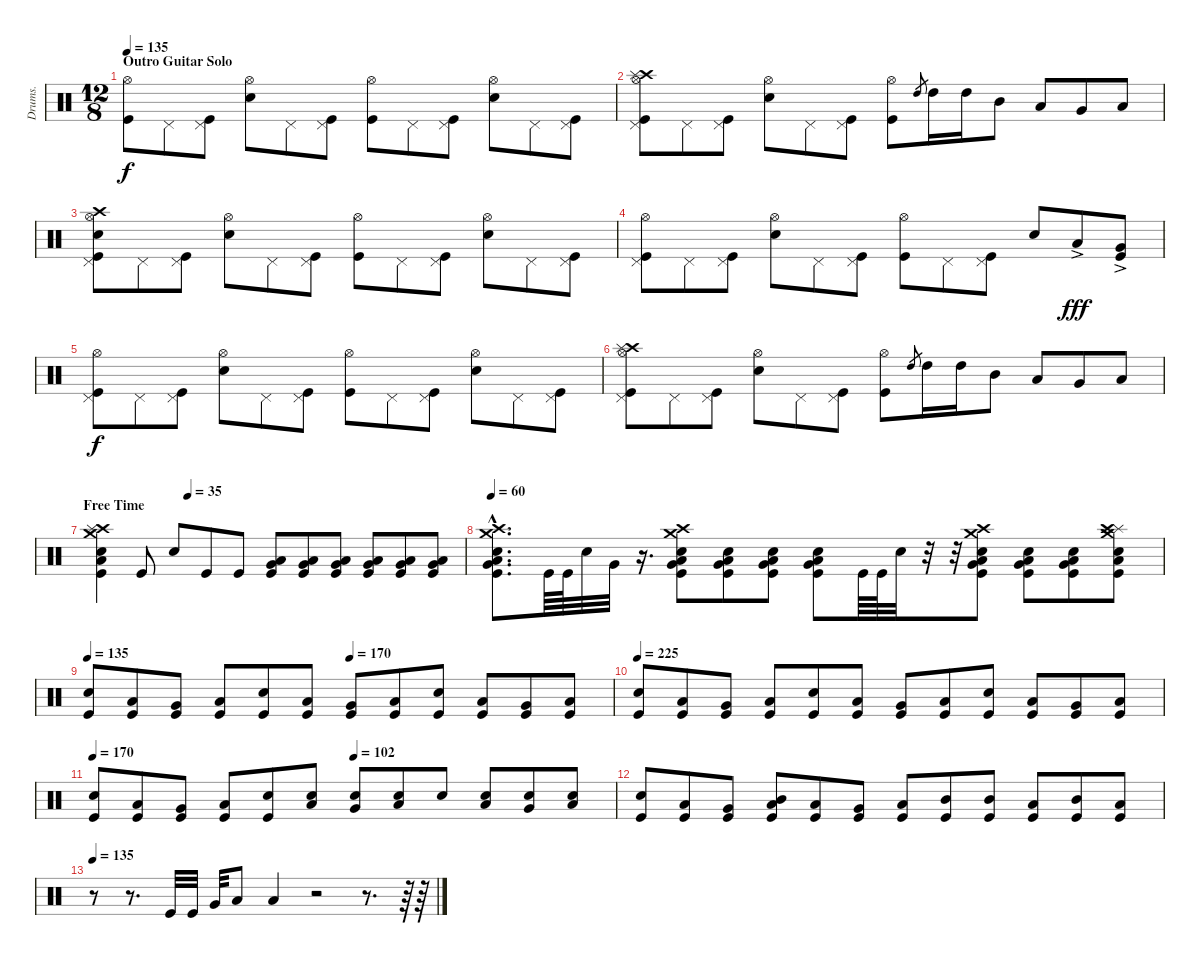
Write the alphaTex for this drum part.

\track ("Drums." "Drums.") {instrument percussion}
\staff {score}
\articulation defaults
\ts (12 8)
\section ("" "Outro Guitar Solo")
\tempo 135
\clef neutral
\ks c
("Hi-Hat (open)" "Kick (hit)").8{dy f} "Pedal Hi-Hat (hit)".8 ("Pedal Hi-Hat (hit)" "Kick (hit)").8 ("Hi-Hat (open)" "Snare (hit) 2").8 "Pedal Hi-Hat (hit)".8 ("Pedal Hi-Hat (hit)" "Kick (hit)").8 ("Hi-Hat (open)" "Kick (hit)").8 "Pedal Hi-Hat (hit)".8 ("Pedal Hi-Hat (hit)" "Kick (hit)").8 ("Hi-Hat (open)" "Snare (hit) 2").8 "Pedal Hi-Hat (hit)".8 ("Pedal Hi-Hat (hit)" "Kick (hit)").8 |
("Hi-Hat (open)" "Crash high (hit)" "Splash (hit)" "Pedal Hi-Hat (hit)" "Kick (hit)").8 "Pedal Hi-Hat (hit)".8 ("Pedal Hi-Hat (hit)" "Kick (hit)").8 ("Hi-Hat (open)" "Snare (hit) 2").8 "Pedal Hi-Hat (hit)".8 ("Pedal Hi-Hat (hit)" "Kick (hit)").8 ("Hi-Hat (open)" "Kick (hit)").8 "High Tom (hit)".8{gr} "High Tom (hit)".16 "High Tom (hit)".16 "Mid Tom (hit)".8 "Low Tom (hit)".8 "Very Low Tom (hit)".8 "Low Floor Tom (hit)".8 |
("Hi-Hat (open)" "Pedal Hi-Hat (hit)" "Crash high (hit)" "Snare (hit) 2" "Kick (hit)").8 "Pedal Hi-Hat (hit)".8 ("Pedal Hi-Hat (hit)" "Kick (hit)").8 ("Hi-Hat (open)" "Snare (hit) 2").8 "Pedal Hi-Hat (hit)".8 ("Pedal Hi-Hat (hit)" "Kick (hit)").8 ("Hi-Hat (open)" "Kick (hit)").8 "Pedal Hi-Hat (hit)".8 ("Pedal Hi-Hat (hit)" "Kick (hit)").8 ("Hi-Hat (open)" "Snare (hit) 2").8 "Pedal Hi-Hat (hit)".8 ("Pedal Hi-Hat (hit)" "Kick (hit)").8 |
("Hi-Hat (open)" "Pedal Hi-Hat (hit)" "Kick (hit)").8 "Pedal Hi-Hat (hit)".8 ("Pedal Hi-Hat (hit)" "Kick (hit)").8 ("Hi-Hat (open)" "Snare (hit) 2").8 "Pedal Hi-Hat (hit)".8 ("Pedal Hi-Hat (hit)" "Kick (hit)").8 ("Hi-Hat (open)" "Kick (hit)").8 "Pedal Hi-Hat (hit)".8 ("Pedal Hi-Hat (hit)" "Kick (hit)").8 "Snare (hit) 2".8 "Low Tom (hit)"{ac}.8{dy fff} ("Very Low Tom (hit)"{ac} "Kick (hit)").8 |
("Hi-Hat (open)" "Pedal Hi-Hat (hit)" "Kick (hit)").8{dy f} "Pedal Hi-Hat (hit)".8 ("Pedal Hi-Hat (hit)" "Kick (hit)").8 ("Hi-Hat (open)" "Snare (hit) 2").8 "Pedal Hi-Hat (hit)".8 ("Pedal Hi-Hat (hit)" "Kick (hit)").8 ("Hi-Hat (open)" "Kick (hit)").8 "Pedal Hi-Hat (hit)".8 ("Pedal Hi-Hat (hit)" "Kick (hit)").8 ("Hi-Hat (open)" "Snare (hit) 2").8 "Pedal Hi-Hat (hit)".8 ("Pedal Hi-Hat (hit)" "Kick (hit)").8 |
("Hi-Hat (open)" "Crash high (hit)" "Splash (hit)" "Pedal Hi-Hat (hit)" "Kick (hit)").8 "Pedal Hi-Hat (hit)".8 ("Pedal Hi-Hat (hit)" "Kick (hit)").8 ("Hi-Hat (open)" "Snare (hit) 2").8 "Pedal Hi-Hat (hit)".8 ("Pedal Hi-Hat (hit)" "Kick (hit)").8 ("Hi-Hat (open)" "Kick (hit)").8 "High Tom (hit)".8{gr} "High Tom (hit)".16 "High Tom (hit)".16 "Mid Tom (hit)".8 "Low Tom (hit)".8 "Very Low Tom (hit)".8 "Low Floor Tom (hit)".8 |
\section ("" "Free Time")
\tempo (35 0.25)
("Crash high (hit)" "Splash (hit)" "Low Tom (hit)" "Snare (hit) 2" "Crash medium (hit)" "Kick (hit)").4 "Kick (hit)".8 "Snare (hit) 2".8 "Kick (hit)".8 "Kick (hit)".8 ("Low Floor Tom (hit)" "Very Low Tom (hit)" "Kick (hit)").8 ("Low Floor Tom (hit)" "Very Low Tom (hit)" "Kick (hit)").8 ("Low Floor Tom (hit)" "Very Low Tom (hit)" "Kick (hit)").8 ("Low Floor Tom (hit)" "Very Low Tom (hit)" "Kick (hit)").8 ("Low Floor Tom (hit)" "Very Low Tom (hit)" "Kick (hit)").8 ("Low Floor Tom (hit)" "Very Low Tom (hit)" "Kick (hit)").8 |
\tempo 60
("Crash medium (hit)"{hac} "Crash high (hit)"{hac} "Snare (hit) 2"{hac} "Very Low Tom (hit)"{hac} "Low Floor Tom (hit)"{hac} "Kick (hit)"{hac}).8{d} "Kick (hit)".64 "Kick (hit)".64 "Snare (hit) 2".32 "Very Low Tom (hit)".32 r.16{d} ("Crash medium (hit)" "Crash high (hit)" "Snare (hit) 2" "Very Low Tom (hit)" "Low Floor Tom (hit)" "Kick (hit)").8 ("Very Low Tom (hit)" "Snare (hit) 2" "Low Floor Tom (hit)" "Kick (hit)").8 ("Very Low Tom (hit)" "Snare (hit) 2" "Low Floor Tom (hit)" "Kick (hit)").8 ("Very Low Tom (hit)" "Snare (hit) 2" "Low Floor Tom (hit)" "Kick (hit)").8 "Kick (hit)".64 "Kick (hit)".64 "Snare (hit) 2".32 r.32 r.32 ("Crash medium (hit)" "Crash high (hit)" "Snare (hit) 2" "Very Low Tom (hit)" "Low Floor Tom (hit)" "Kick (hit)").8 ("Very Low Tom (hit)" "Snare (hit) 2" "Low Floor Tom (hit)" "Kick (hit)").8 ("Very Low Tom (hit)" "Snare (hit) 2" "Low Floor Tom (hit)" "Kick (hit)").8 ("Splash (hit)" "Crash high (hit)" "Crash medium (hit)" "Snare (hit) 2" "Low Floor Tom (hit)" "Kick (hit)").8 |
\tempo 135
\tempo (170 0.5)
("Snare (hit) 2" "Kick (hit)").8 ("Low Tom (hit)" "Kick (hit)").8 ("Very Low Tom (hit)" "Kick (hit)").8 ("Low Floor Tom (hit)" "Kick (hit)").8 ("Snare (hit) 2" "Kick (hit)").8 ("Low Tom (hit)" "Kick (hit)").8 ("Very Low Tom (hit)" "Kick (hit)").8 ("Low Floor Tom (hit)" "Kick (hit)").8 ("Snare (hit) 2" "Kick (hit)").8 ("Low Tom (hit)" "Kick (hit)").8 ("Very Low Tom (hit)" "Kick (hit)").8 ("Low Floor Tom (hit)" "Kick (hit)").8 |
\tempo 225
("Snare (hit) 2" "Kick (hit)").8 ("Low Tom (hit)" "Kick (hit)").8 ("Very Low Tom (hit)" "Kick (hit)").8 ("Low Floor Tom (hit)" "Kick (hit)").8 ("Snare (hit) 2" "Kick (hit)").8 ("Low Tom (hit)" "Kick (hit)").8 ("Very Low Tom (hit)" "Kick (hit)").8 ("Low Floor Tom (hit)" "Kick (hit)").8 ("Snare (hit) 2" "Kick (hit)").8 ("Low Tom (hit)" "Kick (hit)").8 ("Very Low Tom (hit)" "Kick (hit)").8 ("Low Floor Tom (hit)" "Kick (hit)").8 |
\tempo 170
\tempo (102 0.5)
("Snare (hit) 2" "Kick (hit)").8 ("Low Tom (hit)" "Kick (hit)").8 ("Very Low Tom (hit)" "Kick (hit)").8 ("Low Floor Tom (hit)" "Kick (hit)").8 ("Snare (hit) 2" "Kick (hit)").8 ("Snare (hit) 2" "Low Tom (hit)").8 ("Snare (hit) 2" "Very Low Tom (hit)").8 ("Snare (hit) 2" "Low Floor Tom (hit)").8 "Snare (hit) 2".8 ("Snare (hit) 2" "Low Tom (hit)").8 ("Snare (hit) 2" "Very Low Tom (hit)").8 ("Snare (hit) 2" "Low Floor Tom (hit)").8 |
("Snare (hit) 2" "Kick (hit)").8 ("Low Tom (hit)" "Kick (hit)").8 ("Very Low Tom (hit)" "Kick (hit)").8 ("Mid Tom (hit)" "Low Floor Tom (hit)" "Kick (hit)").8 ("Low Tom (hit)" "Kick (hit)").8 ("Very Low Tom (hit)" "Kick (hit)").8 ("Low Floor Tom (hit)" "Kick (hit)").8 ("Mid Tom (hit)" "Kick (hit)").8 ("Mid Tom (hit)" "Kick (hit)").8 ("Low Tom (hit)" "Kick (hit)").8 ("Mid Tom (hit)" "Kick (hit)").8 ("Low Tom (hit)" "Kick (hit)").8 |
\tempo 135
r.8 r.8{d} "Kick (hit)".32 "Kick (hit)".32 "Very Low Tom (hit)".32 "Low Floor Tom (hit)".8 "Low Floor Tom (hit)".4 r.2 r.8{d} r.64 r.64
